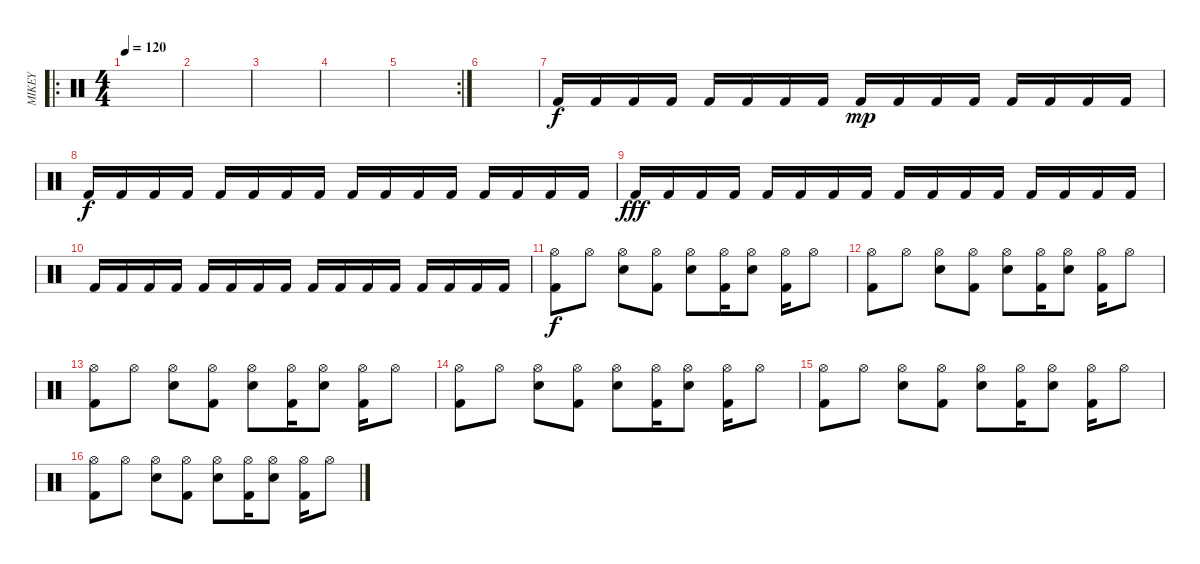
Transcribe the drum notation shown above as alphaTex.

\track ("MIKEY" "MIKEY") {instrument percussion}
\staff {score}
\articulation defaults
\ro
\ts (4 4)
\tempo 120
\clef neutral
\ks c
|
|
|
|
\rc 2
|
|
"Kick (hit) 2".16 "Kick (hit) 2".16 "Kick (hit) 2".16 "Kick (hit) 2".16 "Kick (hit) 2".16 "Kick (hit) 2".16 "Kick (hit) 2".16 "Kick (hit) 2".16 "Kick (hit) 2".16{dy mp} "Kick (hit) 2".16 "Kick (hit) 2".16 "Kick (hit) 2".16 "Kick (hit) 2".16 "Kick (hit) 2".16 "Kick (hit) 2".16 "Kick (hit) 2".16 |
"Kick (hit) 2".16{dy f} "Kick (hit) 2".16 "Kick (hit) 2".16 "Kick (hit) 2".16 "Kick (hit) 2".16 "Kick (hit) 2".16 "Kick (hit) 2".16 "Kick (hit) 2".16 "Kick (hit) 2".16 "Kick (hit) 2".16 "Kick (hit) 2".16 "Kick (hit) 2".16 "Kick (hit) 2".16 "Kick (hit) 2".16 "Kick (hit) 2".16 "Kick (hit) 2".16 |
"Kick (hit) 2".16{dy fff} "Kick (hit) 2".16 "Kick (hit) 2".16 "Kick (hit) 2".16 "Kick (hit) 2".16 "Kick (hit) 2".16 "Kick (hit) 2".16 "Kick (hit) 2".16 "Kick (hit) 2".16 "Kick (hit) 2".16 "Kick (hit) 2".16 "Kick (hit) 2".16 "Kick (hit) 2".16 "Kick (hit) 2".16 "Kick (hit) 2".16 "Kick (hit) 2".16 |
"Kick (hit) 2".16 "Kick (hit) 2".16 "Kick (hit) 2".16 "Kick (hit) 2".16 "Kick (hit) 2".16 "Kick (hit) 2".16 "Kick (hit) 2".16 "Kick (hit) 2".16 "Kick (hit) 2".16 "Kick (hit) 2".16 "Kick (hit) 2".16 "Kick (hit) 2".16 "Kick (hit) 2".16 "Kick (hit) 2".16 "Kick (hit) 2".16 "Kick (hit) 2".16 |
("Kick (hit) 2" "Hi-Hat (open)").8{dy f} "Hi-Hat (open)".8 ("Snare (hit) 2" "Hi-Hat (open)").8 ("Kick (hit) 2" "Hi-Hat (open)").8 ("Snare (hit) 2" "Hi-Hat (open)").8 ("Kick (hit) 2" "Hi-Hat (open)").16 ("Snare (hit) 2" "Hi-Hat (open)").8 ("Kick (hit) 2" "Hi-Hat (open)").16 "Hi-Hat (open)".8 |
("Kick (hit) 2" "Hi-Hat (open)").8 "Hi-Hat (open)".8 ("Snare (hit) 2" "Hi-Hat (open)").8 ("Kick (hit) 2" "Hi-Hat (open)").8 ("Snare (hit) 2" "Hi-Hat (open)").8 ("Kick (hit) 2" "Hi-Hat (open)").16 ("Snare (hit) 2" "Hi-Hat (open)").8 ("Kick (hit) 2" "Hi-Hat (open)").16 "Hi-Hat (open)".8 |
("Kick (hit) 2" "Hi-Hat (open)").8 "Hi-Hat (open)".8 ("Snare (hit) 2" "Hi-Hat (open)").8 ("Kick (hit) 2" "Hi-Hat (open)").8 ("Snare (hit) 2" "Hi-Hat (open)").8 ("Kick (hit) 2" "Hi-Hat (open)").16 ("Snare (hit) 2" "Hi-Hat (open)").8 ("Kick (hit) 2" "Hi-Hat (open)").16 "Hi-Hat (open)".8 |
("Kick (hit) 2" "Hi-Hat (open)").8 "Hi-Hat (open)".8 ("Snare (hit) 2" "Hi-Hat (open)").8 ("Kick (hit) 2" "Hi-Hat (open)").8 ("Snare (hit) 2" "Hi-Hat (open)").8 ("Kick (hit) 2" "Hi-Hat (open)").16 ("Snare (hit) 2" "Hi-Hat (open)").8 ("Kick (hit) 2" "Hi-Hat (open)").16 "Hi-Hat (open)".8 |
("Kick (hit) 2" "Hi-Hat (open)").8 "Hi-Hat (open)".8 ("Snare (hit) 2" "Hi-Hat (open)").8 ("Kick (hit) 2" "Hi-Hat (open)").8 ("Snare (hit) 2" "Hi-Hat (open)").8 ("Kick (hit) 2" "Hi-Hat (open)").16 ("Snare (hit) 2" "Hi-Hat (open)").8 ("Kick (hit) 2" "Hi-Hat (open)").16 "Hi-Hat (open)".8 |
("Kick (hit) 2" "Hi-Hat (open)").8 "Hi-Hat (open)".8 ("Snare (hit) 2" "Hi-Hat (open)").8 ("Kick (hit) 2" "Hi-Hat (open)").8 ("Snare (hit) 2" "Hi-Hat (open)").8 ("Kick (hit) 2" "Hi-Hat (open)").16 ("Snare (hit) 2" "Hi-Hat (open)").8 ("Kick (hit) 2" "Hi-Hat (open)").16 "Hi-Hat (open)".8
